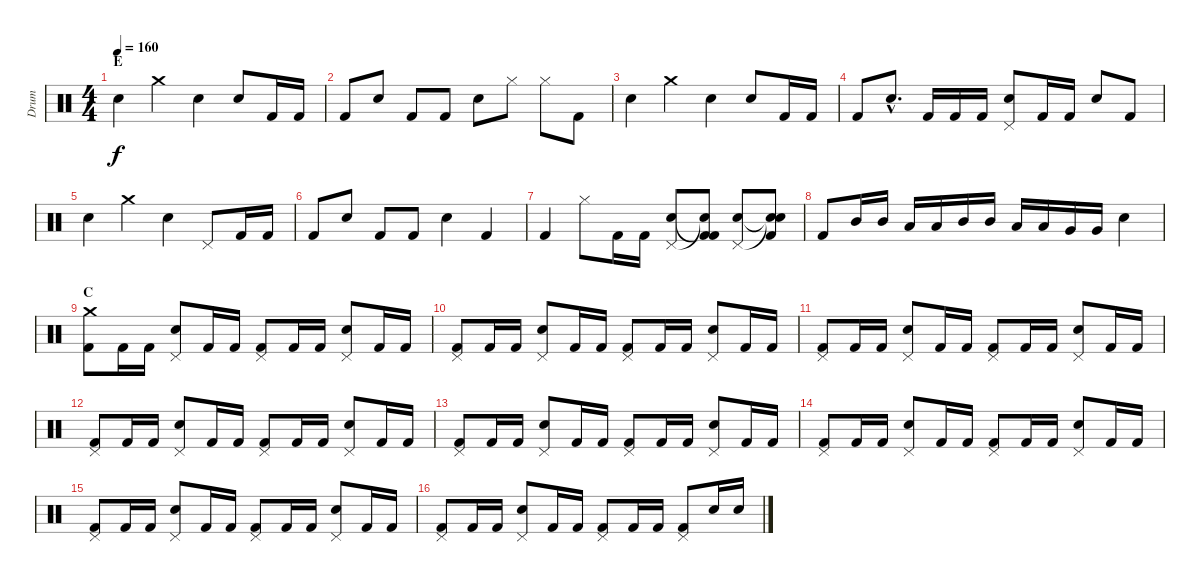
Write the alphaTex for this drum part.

\track ("Drum" "Drum") {instrument percussion}
\staff {score}
\articulation defaults
\ts (4 4)
\section ("" "E")
\tempo 160
\clef neutral
\ks c "Snare (hit) 2".4{dy f} "Crash medium (hit)".4 "Electric Snare (hit)".4 "Snare (hit) 2".8 "Kick (hit) 2".16 "Kick (hit) 2".16
|
"Kick (hit) 2".8 "Snare (hit) 2".8 "Kick (hit) 2".8 "Kick (hit) 2".8 "Snare (hit) 2".8 "Hi-Hat (closed)".8 "Hi-Hat (closed)".8 "Kick (hit) 2".8 |
"Snare (hit) 2".4 "Crash medium (hit)".4 "Electric Snare (hit)".4 "Snare (hit) 2".8 "Kick (hit) 2".16 "Kick (hit) 2".16 |
"Kick (hit) 2".8 "Snare (hit) 2"{hac}.8{d} "Kick (hit) 2".16 "Kick (hit) 2".16 "Kick (hit) 2".16 ("Pedal Hi-Hat (hit)" "Snare (hit) 2").8 "Kick (hit) 2".16 "Kick (hit) 2".16 "Snare (hit) 2".8 "Kick (hit) 2".8 |
"Snare (hit) 2".4 "Crash medium (hit)".4 "Electric Snare (hit)".4 "Pedal Hi-Hat (hit)".8 "Kick (hit) 2".16 "Kick (hit) 2".16 |
"Kick (hit) 2".8 "Snare (hit) 2".8 "Kick (hit) 2".8 "Kick (hit) 2".8 "Snare (hit) 2".4 "Kick (hit) 2".4 |
"Kick (hit) 2".4 "Hi-Hat (closed)".8 "Kick (hit) 2".16 "Kick (hit) 2".16 ("Pedal Hi-Hat (hit)" "Snare (hit) 2").8 ("Snare (hit) 2"{t} "Kick (hit) 2"{t} "Kick (hit) 2").8 ("Pedal Hi-Hat (hit)" "Snare (hit) 2").8 ("Snare (hit)"{t} "Snare (hit)"{t} "Kick (hit) 2").8 |
"Kick (hit) 2".8 "Mid Tom (hit)".16 "Mid Tom (hit)".16 "Low Tom (hit)".16 "Low Tom (hit)".16 "Mid Tom (hit)".16 "Mid Tom (hit)".16 "Low Tom (hit)".16 "Low Tom (hit)".16 "Very Low Tom (hit)".16 "Very Low Tom (hit)".16 "Snare (hit) 2".4 |
\section ("" "C")
("Crash medium (hit)" "Kick (hit) 2").8 "Kick (hit) 2".16 "Kick (hit) 2".16 ("Pedal Hi-Hat (hit)" "Snare (hit) 2").8 "Kick (hit) 2".16 "Kick (hit) 2".16 ("Pedal Hi-Hat (hit)" "Kick (hit) 2").8 "Kick (hit) 2".16 "Kick (hit) 2".16 ("Pedal Hi-Hat (hit)" "Snare (hit) 2").8 "Kick (hit) 2".16 "Kick (hit) 2".16 |
("Pedal Hi-Hat (hit)" "Kick (hit) 2").8 "Kick (hit) 2".16 "Kick (hit) 2".16 ("Pedal Hi-Hat (hit)" "Snare (hit) 2").8 "Kick (hit) 2".16 "Kick (hit) 2".16 ("Pedal Hi-Hat (hit)" "Kick (hit) 2").8 "Kick (hit) 2".16 "Kick (hit) 2".16 ("Pedal Hi-Hat (hit)" "Snare (hit) 2").8 "Kick (hit) 2".16 "Kick (hit) 2".16 |
("Pedal Hi-Hat (hit)" "Kick (hit) 2").8 "Kick (hit) 2".16 "Kick (hit) 2".16 ("Pedal Hi-Hat (hit)" "Snare (hit) 2").8 "Kick (hit) 2".16 "Kick (hit) 2".16 ("Pedal Hi-Hat (hit)" "Kick (hit) 2").8 "Kick (hit) 2".16 "Kick (hit) 2".16 ("Pedal Hi-Hat (hit)" "Snare (hit) 2").8 "Kick (hit) 2".16 "Kick (hit) 2".16 |
("Pedal Hi-Hat (hit)" "Kick (hit) 2").8 "Kick (hit) 2".16 "Kick (hit) 2".16 ("Pedal Hi-Hat (hit)" "Snare (hit) 2").8 "Kick (hit) 2".16 "Kick (hit) 2".16 ("Pedal Hi-Hat (hit)" "Kick (hit) 2").8 "Kick (hit) 2".16 "Kick (hit) 2".16 ("Pedal Hi-Hat (hit)" "Snare (hit) 2").8 "Kick (hit) 2".16 "Kick (hit) 2".16 |
("Pedal Hi-Hat (hit)" "Kick (hit) 2").8 "Kick (hit) 2".16 "Kick (hit) 2".16 ("Pedal Hi-Hat (hit)" "Snare (hit) 2").8 "Kick (hit) 2".16 "Kick (hit) 2".16 ("Pedal Hi-Hat (hit)" "Kick (hit) 2").8 "Kick (hit) 2".16 "Kick (hit) 2".16 ("Pedal Hi-Hat (hit)" "Snare (hit) 2").8 "Kick (hit) 2".16 "Kick (hit) 2".16 |
("Pedal Hi-Hat (hit)" "Kick (hit) 2").8 "Kick (hit) 2".16 "Kick (hit) 2".16 ("Pedal Hi-Hat (hit)" "Snare (hit) 2").8 "Kick (hit) 2".16 "Kick (hit) 2".16 ("Pedal Hi-Hat (hit)" "Kick (hit) 2").8 "Kick (hit) 2".16 "Kick (hit) 2".16 ("Pedal Hi-Hat (hit)" "Snare (hit) 2").8 "Kick (hit) 2".16 "Kick (hit) 2".16 |
("Pedal Hi-Hat (hit)" "Kick (hit) 2").8 "Kick (hit) 2".16 "Kick (hit) 2".16 ("Pedal Hi-Hat (hit)" "Snare (hit) 2").8 "Kick (hit) 2".16 "Kick (hit) 2".16 ("Pedal Hi-Hat (hit)" "Kick (hit) 2").8 "Kick (hit) 2".16 "Kick (hit) 2".16 ("Pedal Hi-Hat (hit)" "Snare (hit) 2").8 "Kick (hit) 2".16 "Kick (hit) 2".16 |
("Pedal Hi-Hat (hit)" "Kick (hit) 2").8 "Kick (hit) 2".16 "Kick (hit) 2".16 ("Pedal Hi-Hat (hit)" "Snare (hit) 2").8 "Kick (hit) 2".16 "Kick (hit) 2".16 ("Pedal Hi-Hat (hit)" "Kick (hit) 2").8 "Kick (hit) 2".16 "Kick (hit) 2".16 ("Pedal Hi-Hat (hit)" "Kick (hit) 2").8 "Snare (hit) 2".16 "Snare (hit) 2".16
